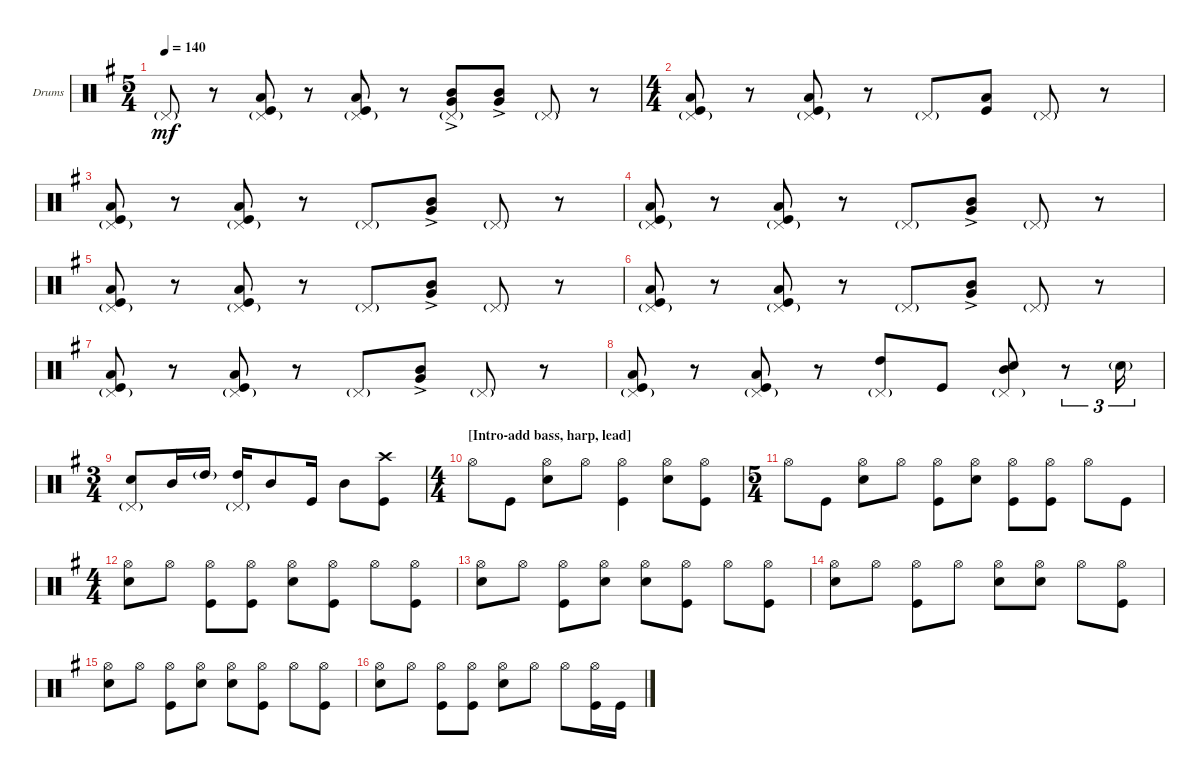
\defaultSystemsLayout 4
\bracketExtendMode groupsimilarinstruments
\firstSystemTrackNameOrientation horizontal
\otherSystemsTrackNameOrientation horizontal
\track ("Drumkit" "Drums") {instrument percussion}
\staff {score}
\articulation defaults
\ts (5 4)
\tempo 140
\clef neutral
\ks g "Pedal Hi-Hat (hit)"{g}.8{dy mf}
r.8 ("Kick (hit)" "Low Tom (hit)" "Pedal Hi-Hat (hit)"{g}).8 r.8 ("Kick (hit)" "Low Tom (hit)" "Pedal Hi-Hat (hit)"{g}).8 r.8 ("Very Low Tom (hit)"{ac} "Mid Tom (hit)" "Pedal Hi-Hat (hit)"{g}).8 ("Very Low Tom (hit)"{ac} "Mid Tom (hit)").8 "Pedal Hi-Hat (hit)"{g}.8 r.8 |
\ts (4 4)
("Kick (hit)" "Low Tom (hit)" "Pedal Hi-Hat (hit)"{g}).8 r.8 ("Kick (hit)" "Low Tom (hit)" "Pedal Hi-Hat (hit)"{g}).8 r.8 "Pedal Hi-Hat (hit)"{g}.8 ("Kick (hit)" "Low Tom (hit)").8 "Pedal Hi-Hat (hit)"{g}.8 r.8 |
("Kick (hit)" "Low Tom (hit)" "Pedal Hi-Hat (hit)"{g}).8 r.8 ("Kick (hit)" "Low Tom (hit)" "Pedal Hi-Hat (hit)"{g}).8 r.8 "Pedal Hi-Hat (hit)"{g}.8 ("Very Low Tom (hit)"{ac} "Mid Tom (hit)").8 "Pedal Hi-Hat (hit)"{g}.8 r.8 |
("Kick (hit)" "Low Tom (hit)" "Pedal Hi-Hat (hit)"{g}).8 r.8 ("Kick (hit)" "Low Tom (hit)" "Pedal Hi-Hat (hit)"{g}).8 r.8 "Pedal Hi-Hat (hit)"{g}.8 ("Very Low Tom (hit)"{ac} "Mid Tom (hit)").8 "Pedal Hi-Hat (hit)"{g}.8 r.8 |
("Kick (hit)" "Low Tom (hit)" "Pedal Hi-Hat (hit)"{g}).8 r.8 ("Kick (hit)" "Low Tom (hit)" "Pedal Hi-Hat (hit)"{g}).8 r.8 "Pedal Hi-Hat (hit)"{g}.8 ("Very Low Tom (hit)"{ac} "Mid Tom (hit)").8 "Pedal Hi-Hat (hit)"{g}.8 r.8 |
("Kick (hit)" "Low Tom (hit)" "Pedal Hi-Hat (hit)"{g}).8 r.8 ("Kick (hit)" "Low Tom (hit)" "Pedal Hi-Hat (hit)"{g}).8 r.8 "Pedal Hi-Hat (hit)"{g}.8 ("Very Low Tom (hit)"{ac} "Mid Tom (hit)").8 "Pedal Hi-Hat (hit)"{g}.8 r.8 |
("Kick (hit)" "Low Tom (hit)" "Pedal Hi-Hat (hit)"{g}).8 r.8 ("Kick (hit)" "Low Tom (hit)" "Pedal Hi-Hat (hit)"{g}).8 r.8 "Pedal Hi-Hat (hit)"{g}.8 ("Very Low Tom (hit)"{ac} "Mid Tom (hit)").8 "Pedal Hi-Hat (hit)"{g}.8 r.8 |
("Kick (hit)" "Low Tom (hit)" "Pedal Hi-Hat (hit)"{g}).8 r.8 ("Kick (hit)" "Low Tom (hit)" "Pedal Hi-Hat (hit)"{g}).8 r.8 ("High Tom (hit)" "Pedal Hi-Hat (hit)"{g}).8 "Kick (hit)".8 ("Mid Tom (hit)" "Snare (hit) 2" "Pedal Hi-Hat (hit)"{g}).8 r.8{tu (3 2)} "Snare (hit) 2"{g}.16{tu (3 2)} |
\ts (3 4)
("Snare (hit) 2" "Pedal Hi-Hat (hit)"{g}).8 "Mid Tom (hit)".16 "High Tom (hit)"{g}.16 ("High Tom (hit)" "Pedal Hi-Hat (hit)"{g}).16 "Mid Tom (hit)".8 "Kick (hit)".16 "Mid Tom (hit)".8 ("Kick (hit)" "Crash high (hit)").8 |
\ts (4 4)
\section ("" "[Intro-add bass, harp, lead]")
"Hi-Hat (open)".8 "Kick (hit)".8 ("Hi-Hat (open)" "Snare (hit) 2").8 "Hi-Hat (open)".8 ("Hi-Hat (open)" "Kick (hit)").4 ("Hi-Hat (open)" "Snare (hit) 2").8 ("Hi-Hat (open)" "Kick (hit)").8 |
\ts (5 4)
"Hi-Hat (open)".8 "Kick (hit)".8 ("Hi-Hat (open)" "Snare (hit) 2").8 "Hi-Hat (open)".8 ("Hi-Hat (open)" "Kick (hit)").8 ("Snare (hit) 2" "Hi-Hat (open)").8 ("Hi-Hat (open)" "Kick (hit)").8 ("Hi-Hat (open)" "Kick (hit)").8 "Hi-Hat (open)".8 "Kick (hit)".8 |
\ts (4 4)
("Hi-Hat (open)" "Snare (hit) 2").8 "Hi-Hat (open)".8 ("Hi-Hat (open)" "Kick (hit)").8 ("Hi-Hat (open)" "Kick (hit)").8 ("Hi-Hat (open)" "Snare (hit) 2").8 ("Hi-Hat (open)" "Kick (hit)").8 "Hi-Hat (open)".8 ("Hi-Hat (open)" "Kick (hit)").8 |
("Hi-Hat (open)" "Snare (hit) 2").8 "Hi-Hat (open)".8 ("Hi-Hat (open)" "Kick (hit)").8 ("Hi-Hat (open)" "Snare (hit) 2").8 ("Hi-Hat (open)" "Snare (hit) 2").8 ("Hi-Hat (open)" "Kick (hit)").8 "Hi-Hat (open)".8 ("Hi-Hat (open)" "Kick (hit)").8 |
("Hi-Hat (open)" "Snare (hit) 2").8 "Hi-Hat (open)".8 ("Hi-Hat (open)" "Kick (hit)").8 "Hi-Hat (open)".8 ("Hi-Hat (open)" "Snare (hit) 2").8 ("Hi-Hat (open)" "Snare (hit) 2").8 "Hi-Hat (open)".8 ("Hi-Hat (open)" "Kick (hit)").8 |
("Hi-Hat (open)" "Snare (hit) 2").8 "Hi-Hat (open)".8 ("Hi-Hat (open)" "Kick (hit)").8 ("Hi-Hat (open)" "Snare (hit) 2").8 ("Hi-Hat (open)" "Snare (hit) 2").8 ("Hi-Hat (open)" "Kick (hit)").8 "Hi-Hat (open)".8 ("Hi-Hat (open)" "Kick (hit)").8 |
("Hi-Hat (open)" "Snare (hit) 2").8 "Hi-Hat (open)".8 ("Hi-Hat (open)" "Kick (hit)").8 ("Hi-Hat (open)" "Kick (hit)").8 ("Hi-Hat (open)" "Snare (hit) 2").8 "Hi-Hat (open)".8 "Hi-Hat (open)".8 ("Hi-Hat (open)" "Kick (hit)").16 "Kick (hit)".16
